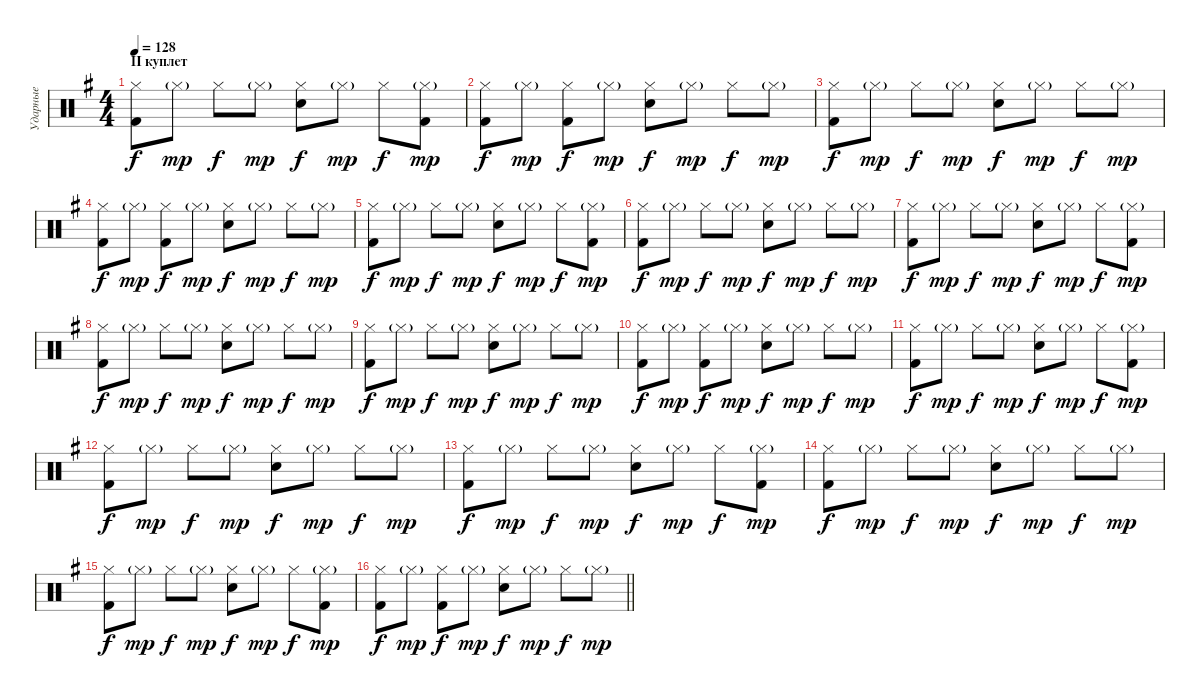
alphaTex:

\track ("Ударные" "Ударные") {instrument percussion}
\staff {score}
\articulation defaults
\ts (4 4)
\section ("" "II куплет")
\tempo 128
\clef neutral
\ks eminor
("Hi-Hat (closed)" "Kick (hit) 2").8{dy f} "Hi-Hat (closed)"{g}.8{dy mp} "Hi-Hat (closed)".8{dy f} "Hi-Hat (closed)"{g}.8{dy mp} ("Hi-Hat (closed)" "Electric Snare (hit)").8{dy f} "Hi-Hat (closed)"{g}.8{dy mp} "Hi-Hat (closed)".8{dy f} ("Hi-Hat (closed)"{g} "Kick (hit) 2").8{dy mp} |
("Hi-Hat (closed)" "Kick (hit) 2").8{dy f} "Hi-Hat (closed)"{g}.8{dy mp} ("Hi-Hat (closed)" "Kick (hit) 2").8{dy f} "Hi-Hat (closed)"{g}.8{dy mp} ("Hi-Hat (closed)" "Electric Snare (hit)").8{dy f} "Hi-Hat (closed)"{g}.8{dy mp} "Hi-Hat (closed)".8{dy f} "Hi-Hat (closed)"{g}.8{dy mp} |
("Hi-Hat (closed)" "Kick (hit) 2").8{dy f} "Hi-Hat (closed)"{g}.8{dy mp} "Hi-Hat (closed)".8{dy f} "Hi-Hat (closed)"{g}.8{dy mp} ("Hi-Hat (closed)" "Electric Snare (hit)").8{dy f} "Hi-Hat (closed)"{g}.8{dy mp} "Hi-Hat (closed)".8{dy f} "Hi-Hat (closed)"{g}.8{dy mp} |
("Hi-Hat (closed)" "Kick (hit) 2").8{dy f} "Hi-Hat (closed)"{g}.8{dy mp} ("Hi-Hat (closed)" "Kick (hit) 2").8{dy f} "Hi-Hat (closed)"{g}.8{dy mp} ("Hi-Hat (closed)" "Electric Snare (hit)").8{dy f} "Hi-Hat (closed)"{g}.8{dy mp} "Hi-Hat (closed)".8{dy f} "Hi-Hat (closed)"{g}.8{dy mp} |
("Hi-Hat (closed)" "Kick (hit) 2").8{dy f} "Hi-Hat (closed)"{g}.8{dy mp} "Hi-Hat (closed)".8{dy f} "Hi-Hat (closed)"{g}.8{dy mp} ("Hi-Hat (closed)" "Electric Snare (hit)").8{dy f} "Hi-Hat (closed)"{g}.8{dy mp} "Hi-Hat (closed)".8{dy f} ("Hi-Hat (closed)"{g} "Kick (hit) 2").8{dy mp} |
("Hi-Hat (closed)" "Kick (hit) 2").8{dy f} "Hi-Hat (closed)"{g}.8{dy mp} "Hi-Hat (closed)".8{dy f} "Hi-Hat (closed)"{g}.8{dy mp} ("Hi-Hat (closed)" "Electric Snare (hit)").8{dy f} "Hi-Hat (closed)"{g}.8{dy mp} "Hi-Hat (closed)".8{dy f} "Hi-Hat (closed)"{g}.8{dy mp} |
("Hi-Hat (closed)" "Kick (hit) 2").8{dy f} "Hi-Hat (closed)"{g}.8{dy mp} "Hi-Hat (closed)".8{dy f} "Hi-Hat (closed)"{g}.8{dy mp} ("Hi-Hat (closed)" "Electric Snare (hit)").8{dy f} "Hi-Hat (closed)"{g}.8{dy mp} "Hi-Hat (closed)".8{dy f} ("Hi-Hat (closed)"{g} "Kick (hit) 2").8{dy mp} |
("Hi-Hat (closed)" "Kick (hit) 2").8{dy f} "Hi-Hat (closed)"{g}.8{dy mp} "Hi-Hat (closed)".8{dy f} "Hi-Hat (closed)"{g}.8{dy mp} ("Hi-Hat (closed)" "Electric Snare (hit)").8{dy f} "Hi-Hat (closed)"{g}.8{dy mp} "Hi-Hat (closed)".8{dy f} "Hi-Hat (closed)"{g}.8{dy mp} |
("Hi-Hat (closed)" "Kick (hit) 2").8{dy f} "Hi-Hat (closed)"{g}.8{dy mp} "Hi-Hat (closed)".8{dy f} "Hi-Hat (closed)"{g}.8{dy mp} ("Hi-Hat (closed)" "Electric Snare (hit)").8{dy f} "Hi-Hat (closed)"{g}.8{dy mp} "Hi-Hat (closed)".8{dy f} "Hi-Hat (closed)"{g}.8{dy mp} |
("Hi-Hat (closed)" "Kick (hit) 2").8{dy f} "Hi-Hat (closed)"{g}.8{dy mp} ("Hi-Hat (closed)" "Kick (hit) 2").8{dy f} "Hi-Hat (closed)"{g}.8{dy mp} ("Hi-Hat (closed)" "Electric Snare (hit)").8{dy f} "Hi-Hat (closed)"{g}.8{dy mp} "Hi-Hat (closed)".8{dy f} "Hi-Hat (closed)"{g}.8{dy mp} |
("Hi-Hat (closed)" "Kick (hit) 2").8{dy f} "Hi-Hat (closed)"{g}.8{dy mp} "Hi-Hat (closed)".8{dy f} "Hi-Hat (closed)"{g}.8{dy mp} ("Hi-Hat (closed)" "Electric Snare (hit)").8{dy f} "Hi-Hat (closed)"{g}.8{dy mp} "Hi-Hat (closed)".8{dy f} ("Hi-Hat (closed)"{g} "Kick (hit) 2").8{dy mp} |
("Hi-Hat (closed)" "Kick (hit) 2").8{dy f} "Hi-Hat (closed)"{g}.8{dy mp} "Hi-Hat (closed)".8{dy f} "Hi-Hat (closed)"{g}.8{dy mp} ("Hi-Hat (closed)" "Electric Snare (hit)").8{dy f} "Hi-Hat (closed)"{g}.8{dy mp} "Hi-Hat (closed)".8{dy f} "Hi-Hat (closed)"{g}.8{dy mp} |
("Hi-Hat (closed)" "Kick (hit) 2").8{dy f} "Hi-Hat (closed)"{g}.8{dy mp} "Hi-Hat (closed)".8{dy f} "Hi-Hat (closed)"{g}.8{dy mp} ("Hi-Hat (closed)" "Electric Snare (hit)").8{dy f} "Hi-Hat (closed)"{g}.8{dy mp} "Hi-Hat (closed)".8{dy f} ("Hi-Hat (closed)"{g} "Kick (hit) 2").8{dy mp} |
("Hi-Hat (closed)" "Kick (hit) 2").8{dy f} "Hi-Hat (closed)"{g}.8{dy mp} "Hi-Hat (closed)".8{dy f} "Hi-Hat (closed)"{g}.8{dy mp} ("Hi-Hat (closed)" "Electric Snare (hit)").8{dy f} "Hi-Hat (closed)"{g}.8{dy mp} "Hi-Hat (closed)".8{dy f} "Hi-Hat (closed)"{g}.8{dy mp} |
("Hi-Hat (closed)" "Kick (hit) 2").8{dy f} "Hi-Hat (closed)"{g}.8{dy mp} "Hi-Hat (closed)".8{dy f} "Hi-Hat (closed)"{g}.8{dy mp} ("Hi-Hat (closed)" "Electric Snare (hit)").8{dy f} "Hi-Hat (closed)"{g}.8{dy mp} "Hi-Hat (closed)".8{dy f} ("Hi-Hat (closed)"{g} "Kick (hit) 2").8{dy mp} |
\barLineRight lightlight
("Hi-Hat (closed)" "Kick (hit) 2").8{dy f} "Hi-Hat (closed)"{g}.8{dy mp} ("Hi-Hat (closed)" "Kick (hit) 2").8{dy f} "Hi-Hat (closed)"{g}.8{dy mp} ("Hi-Hat (closed)" "Electric Snare (hit)").8{dy f} "Hi-Hat (closed)"{g}.8{dy mp} "Hi-Hat (closed)".8{dy f} "Hi-Hat (closed)"{g}.8{dy mp}
